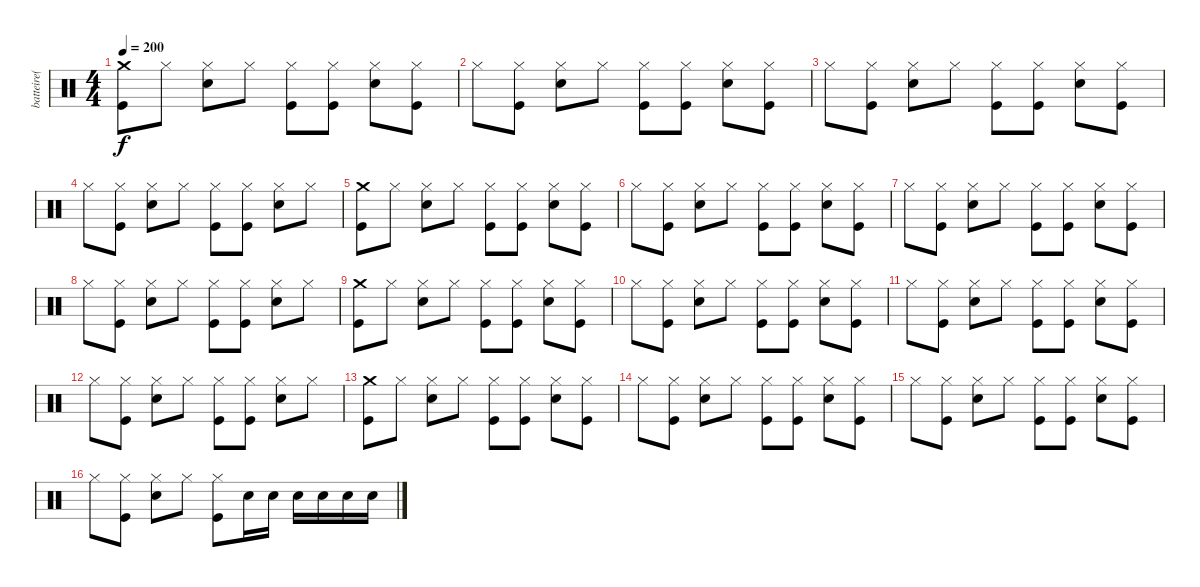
\track ("batteire( Danny Alaro )" "batteire( ") {instrument percussion}
\staff {score}
\articulation defaults
\ts (4 4)
\tempo 200
\clef neutral
\ks c
("Crash medium (hit)" "Kick (hit)").8{dy f} "Hi-Hat (closed)".8 ("Hi-Hat (closed)" "Snare (hit) 2").8 "Hi-Hat (closed)".8 ("Hi-Hat (closed)" "Kick (hit)").8 ("Hi-Hat (closed)" "Kick (hit)").8 ("Hi-Hat (closed)" "Snare (hit) 2").8 ("Hi-Hat (closed)" "Kick (hit)").8 |
"Hi-Hat (closed)".8 ("Hi-Hat (closed)" "Kick (hit)").8 ("Hi-Hat (closed)" "Snare (hit) 2").8 "Hi-Hat (closed)".8 ("Hi-Hat (closed)" "Kick (hit)").8 ("Hi-Hat (closed)" "Kick (hit)").8 ("Hi-Hat (closed)" "Snare (hit) 2").8 ("Hi-Hat (closed)" "Kick (hit)").8 |
"Hi-Hat (closed)".8 ("Hi-Hat (closed)" "Kick (hit)").8 ("Hi-Hat (closed)" "Snare (hit) 2").8 "Hi-Hat (closed)".8 ("Hi-Hat (closed)" "Kick (hit)").8 ("Hi-Hat (closed)" "Kick (hit)").8 ("Hi-Hat (closed)" "Snare (hit) 2").8 ("Hi-Hat (closed)" "Kick (hit)").8 |
"Hi-Hat (closed)".8 ("Hi-Hat (closed)" "Kick (hit)").8 ("Hi-Hat (closed)" "Snare (hit) 2").8 "Hi-Hat (closed)".8 ("Hi-Hat (closed)" "Kick (hit)").8 ("Hi-Hat (closed)" "Kick (hit)").8 ("Hi-Hat (closed)" "Snare (hit) 2").8 "Hi-Hat (closed)".8 |
("Crash medium (hit)" "Kick (hit)").8 "Hi-Hat (closed)".8 ("Hi-Hat (closed)" "Snare (hit) 2").8 "Hi-Hat (closed)".8 ("Hi-Hat (closed)" "Kick (hit)").8 ("Hi-Hat (closed)" "Kick (hit)").8 ("Hi-Hat (closed)" "Snare (hit) 2").8 ("Hi-Hat (closed)" "Kick (hit)").8 |
"Hi-Hat (closed)".8 ("Hi-Hat (closed)" "Kick (hit)").8 ("Hi-Hat (closed)" "Snare (hit) 2").8 "Hi-Hat (closed)".8 ("Hi-Hat (closed)" "Kick (hit)").8 ("Hi-Hat (closed)" "Kick (hit)").8 ("Hi-Hat (closed)" "Snare (hit) 2").8 ("Hi-Hat (closed)" "Kick (hit)").8 |
"Hi-Hat (closed)".8 ("Hi-Hat (closed)" "Kick (hit)").8 ("Hi-Hat (closed)" "Snare (hit) 2").8 "Hi-Hat (closed)".8 ("Hi-Hat (closed)" "Kick (hit)").8 ("Hi-Hat (closed)" "Kick (hit)").8 ("Hi-Hat (closed)" "Snare (hit) 2").8 ("Hi-Hat (closed)" "Kick (hit)").8 |
"Hi-Hat (closed)".8 ("Hi-Hat (closed)" "Kick (hit)").8 ("Hi-Hat (closed)" "Snare (hit) 2").8 "Hi-Hat (closed)".8 ("Hi-Hat (closed)" "Kick (hit)").8 ("Hi-Hat (closed)" "Kick (hit)").8 ("Hi-Hat (closed)" "Snare (hit) 2").8 "Hi-Hat (closed)".8 |
("Crash medium (hit)" "Kick (hit)").8 "Hi-Hat (closed)".8 ("Hi-Hat (closed)" "Snare (hit) 2").8 "Hi-Hat (closed)".8 ("Hi-Hat (closed)" "Kick (hit)").8 ("Hi-Hat (closed)" "Kick (hit)").8 ("Hi-Hat (closed)" "Snare (hit) 2").8 ("Hi-Hat (closed)" "Kick (hit)").8 |
"Hi-Hat (closed)".8 ("Hi-Hat (closed)" "Kick (hit)").8 ("Hi-Hat (closed)" "Snare (hit) 2").8 "Hi-Hat (closed)".8 ("Hi-Hat (closed)" "Kick (hit)").8 ("Hi-Hat (closed)" "Kick (hit)").8 ("Hi-Hat (closed)" "Snare (hit) 2").8 ("Hi-Hat (closed)" "Kick (hit)").8 |
"Hi-Hat (closed)".8 ("Hi-Hat (closed)" "Kick (hit)").8 ("Hi-Hat (closed)" "Snare (hit) 2").8 "Hi-Hat (closed)".8 ("Hi-Hat (closed)" "Kick (hit)").8 ("Hi-Hat (closed)" "Kick (hit)").8 ("Hi-Hat (closed)" "Snare (hit) 2").8 ("Hi-Hat (closed)" "Kick (hit)").8 |
"Hi-Hat (closed)".8 ("Hi-Hat (closed)" "Kick (hit)").8 ("Hi-Hat (closed)" "Snare (hit) 2").8 "Hi-Hat (closed)".8 ("Hi-Hat (closed)" "Kick (hit)").8 ("Hi-Hat (closed)" "Kick (hit)").8 ("Hi-Hat (closed)" "Snare (hit) 2").8 "Hi-Hat (closed)".8 |
("Crash medium (hit)" "Kick (hit)").8 "Hi-Hat (closed)".8 ("Hi-Hat (closed)" "Snare (hit) 2").8 "Hi-Hat (closed)".8 ("Hi-Hat (closed)" "Kick (hit)").8 ("Hi-Hat (closed)" "Kick (hit)").8 ("Hi-Hat (closed)" "Snare (hit) 2").8 ("Hi-Hat (closed)" "Kick (hit)").8 |
"Hi-Hat (closed)".8 ("Hi-Hat (closed)" "Kick (hit)").8 ("Hi-Hat (closed)" "Snare (hit) 2").8 "Hi-Hat (closed)".8 ("Hi-Hat (closed)" "Kick (hit)").8 ("Hi-Hat (closed)" "Kick (hit)").8 ("Hi-Hat (closed)" "Snare (hit) 2").8 ("Hi-Hat (closed)" "Kick (hit)").8 |
"Hi-Hat (closed)".8 ("Hi-Hat (closed)" "Kick (hit)").8 ("Hi-Hat (closed)" "Snare (hit) 2").8 "Hi-Hat (closed)".8 ("Hi-Hat (closed)" "Kick (hit)").8 ("Hi-Hat (closed)" "Kick (hit)").8 ("Hi-Hat (closed)" "Snare (hit) 2").8 ("Hi-Hat (closed)" "Kick (hit)").8 |
"Hi-Hat (closed)".8 ("Hi-Hat (closed)" "Kick (hit)").8 ("Hi-Hat (closed)" "Snare (hit) 2").8 "Hi-Hat (closed)".8 ("Hi-Hat (closed)" "Kick (hit)").8 "Snare (hit) 2".16 "Snare (hit) 2".16 "Snare (hit) 2".16 "Snare (hit) 2".16 "Snare (hit) 2".16 "Snare (hit) 2".16
